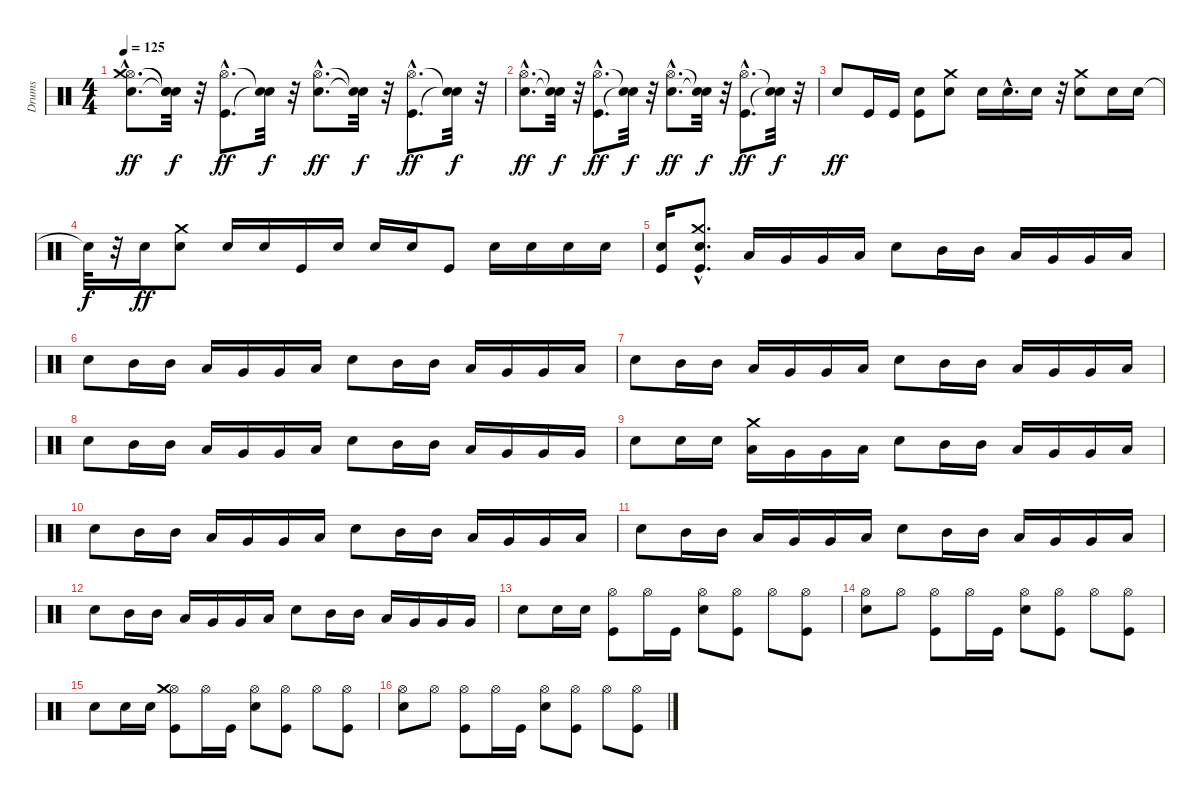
\track ("Drums" "Drums") {instrument percussion}
\staff {score}
\articulation defaults
\ts (4 4)
\tempo 125
\clef neutral
\ks c
("Electric Snare (hit)"{hac} "Hi-Hat (open)"{hac} "Crash medium (hit)"{hac}).8{d dy ff} ("Snare (hit)"{t} "Snare (hit)"{t} "Snare (hit)"{t}).32{dy f} r.32 ("Kick (hit)"{hac} "Hi-Hat (open)"{hac}).8{d dy ff} ("Snare (hit)"{t} "Snare (hit)"{t}).32{dy f} r.32 ("Electric Snare (hit)"{hac} "Hi-Hat (open)"{hac}).8{d dy ff} ("Snare (hit)"{t} "Snare (hit)"{t}).32{dy f} r.32 ("Kick (hit)"{hac} "Hi-Hat (open)"{hac}).8{d dy ff} ("Snare (hit)"{t} "Snare (hit)"{t}).32{dy f} r.32 |
("Electric Snare (hit)"{hac} "Hi-Hat (open)"{hac}).8{d dy ff} ("Snare (hit)"{t} "Snare (hit)"{t}).32{dy f} r.32 ("Kick (hit)"{hac} "Hi-Hat (open)"{hac}).8{d dy ff} ("Snare (hit)"{t} "Snare (hit)"{t}).32{dy f} r.32 ("Electric Snare (hit)"{hac} "Hi-Hat (open)"{hac}).8{d dy ff} ("Snare (hit)"{t} "Snare (hit)"{t}).32{dy f} r.32 ("Kick (hit)"{hac} "Hi-Hat (open)"{hac}).8{d dy ff} ("Snare (hit)"{t} "Snare (hit)"{t}).32{dy f} r.32 |
"Electric Snare (hit)".8{dy ff} "Kick (hit)".16 "Kick (hit)".16 ("Kick (hit)" "Electric Snare (hit)").8 ("Electric Snare (hit)" "Crash medium (hit)").8 "Electric Snare (hit)".16 "Electric Snare (hit)"{hac}.16{d} "Electric Snare (hit)".16 r.32 ("Electric Snare (hit)" "Crash medium (hit)").8 "Electric Snare (hit)".16 "Electric Snare (hit)".16 |
"Snare (hit)"{t}.32{dy f} r.32 "Electric Snare (hit)".16{dy ff} ("Electric Snare (hit)" "Crash medium (hit)").8 "Electric Snare (hit)".16 "Electric Snare (hit)".16 "Kick (hit)".16 "Electric Snare (hit)".16 "Electric Snare (hit)".16 "Electric Snare (hit)".16 "Kick (hit)".8 "Electric Snare (hit)".16 "Electric Snare (hit)".16 "Electric Snare (hit)".16 "Electric Snare (hit)".16 |
("Kick (hit)" "Electric Snare (hit)").16 ("Kick (hit)"{hac} "Electric Snare (hit)"{hac} "Crash medium (hit)"{hac}).8{d} "Low Tom (hit)".16 "Very Low Tom (hit)".16 "Very Low Tom (hit)".16 "Low Floor Tom (hit)".16 "Electric Snare (hit)".8 "Mid Tom (hit)".16 "Mid Tom (hit)".16 "Low Tom (hit)".16 "Very Low Tom (hit)".16 "Very Low Tom (hit)".16 "Low Floor Tom (hit)".16 |
"Electric Snare (hit)".8 "Mid Tom (hit)".16 "Mid Tom (hit)".16 "Low Tom (hit)".16 "Very Low Tom (hit)".16 "Very Low Tom (hit)".16 "Low Floor Tom (hit)".16 "Electric Snare (hit)".8 "Mid Tom (hit)".16 "Mid Tom (hit)".16 "Low Tom (hit)".16 "Very Low Tom (hit)".16 "Very Low Tom (hit)".16 "Low Floor Tom (hit)".16 |
"Electric Snare (hit)".8 "Mid Tom (hit)".16 "Mid Tom (hit)".16 "Low Tom (hit)".16 "Very Low Tom (hit)".16 "Very Low Tom (hit)".16 "Low Floor Tom (hit)".16 "Electric Snare (hit)".8 "Mid Tom (hit)".16 "Mid Tom (hit)".16 "Low Tom (hit)".16 "Very Low Tom (hit)".16 "Very Low Tom (hit)".16 "Low Floor Tom (hit)".16 |
"Electric Snare (hit)".8 "Mid Tom (hit)".16 "Mid Tom (hit)".16 "Low Tom (hit)".16 "Very Low Tom (hit)".16 "Very Low Tom (hit)".16 "Low Floor Tom (hit)".16 "Electric Snare (hit)".8 "Mid Tom (hit)".16 "Mid Tom (hit)".16 "Low Tom (hit)".16 "Very Low Tom (hit)".16 "Very Low Tom (hit)".16 "Very Low Tom (hit)".16 |
"Electric Snare (hit)".8 "Electric Snare (hit)".16 "Electric Snare (hit)".16 ("Low Tom (hit)" "Crash medium (hit)").16 "Very Low Tom (hit)".16 "Very Low Tom (hit)".16 "Low Floor Tom (hit)".16 "Electric Snare (hit)".8 "Mid Tom (hit)".16 "Mid Tom (hit)".16 "Low Tom (hit)".16 "Very Low Tom (hit)".16 "Very Low Tom (hit)".16 "Low Floor Tom (hit)".16 |
"Electric Snare (hit)".8 "Mid Tom (hit)".16 "Mid Tom (hit)".16 "Low Tom (hit)".16 "Very Low Tom (hit)".16 "Very Low Tom (hit)".16 "Low Floor Tom (hit)".16 "Electric Snare (hit)".8 "Mid Tom (hit)".16 "Mid Tom (hit)".16 "Low Tom (hit)".16 "Very Low Tom (hit)".16 "Very Low Tom (hit)".16 "Low Floor Tom (hit)".16 |
"Electric Snare (hit)".8 "Mid Tom (hit)".16 "Mid Tom (hit)".16 "Low Tom (hit)".16 "Very Low Tom (hit)".16 "Very Low Tom (hit)".16 "Low Floor Tom (hit)".16 "Electric Snare (hit)".8 "Mid Tom (hit)".16 "Mid Tom (hit)".16 "Low Tom (hit)".16 "Very Low Tom (hit)".16 "Very Low Tom (hit)".16 "Low Floor Tom (hit)".16 |
"Electric Snare (hit)".8 "Mid Tom (hit)".16 "Mid Tom (hit)".16 "Low Tom (hit)".16 "Very Low Tom (hit)".16 "Very Low Tom (hit)".16 "Low Floor Tom (hit)".16 "Electric Snare (hit)".8 "Mid Tom (hit)".16 "Mid Tom (hit)".16 "Low Tom (hit)".16 "Very Low Tom (hit)".16 "Very Low Tom (hit)".16 "Very Low Tom (hit)".16 |
"Electric Snare (hit)".8 "Electric Snare (hit)".16 "Electric Snare (hit)".16 ("Kick (hit)" "Hi-Hat (open)").8 "Hi-Hat (open)".16 "Kick (hit)".16 ("Electric Snare (hit)" "Hi-Hat (open)").8 ("Kick (hit)" "Hi-Hat (open)").8 "Hi-Hat (open)".8 ("Kick (hit)" "Hi-Hat (open)").8 |
("Electric Snare (hit)" "Hi-Hat (open)").8 "Hi-Hat (open)".8 ("Kick (hit)" "Hi-Hat (open)").8 "Hi-Hat (open)".16 "Kick (hit)".16 ("Electric Snare (hit)" "Hi-Hat (open)").8 ("Kick (hit)" "Hi-Hat (open)").8 "Hi-Hat (open)".8 ("Kick (hit)" "Hi-Hat (open)").8 |
"Electric Snare (hit)".8 "Electric Snare (hit)".16 "Electric Snare (hit)".16 ("Kick (hit)" "Hi-Hat (open)" "Crash medium (hit)").8 "Hi-Hat (open)".16 "Kick (hit)".16 ("Electric Snare (hit)" "Hi-Hat (open)").8 ("Kick (hit)" "Hi-Hat (open)").8 "Hi-Hat (open)".8 ("Kick (hit)" "Hi-Hat (open)").8 |
("Electric Snare (hit)" "Hi-Hat (open)").8 "Hi-Hat (open)".8 ("Kick (hit)" "Hi-Hat (open)").8 "Hi-Hat (open)".16 "Kick (hit)".16 ("Electric Snare (hit)" "Hi-Hat (open)").8 ("Kick (hit)" "Hi-Hat (open)").8 "Hi-Hat (open)".8 ("Kick (hit)" "Hi-Hat (open)").8
